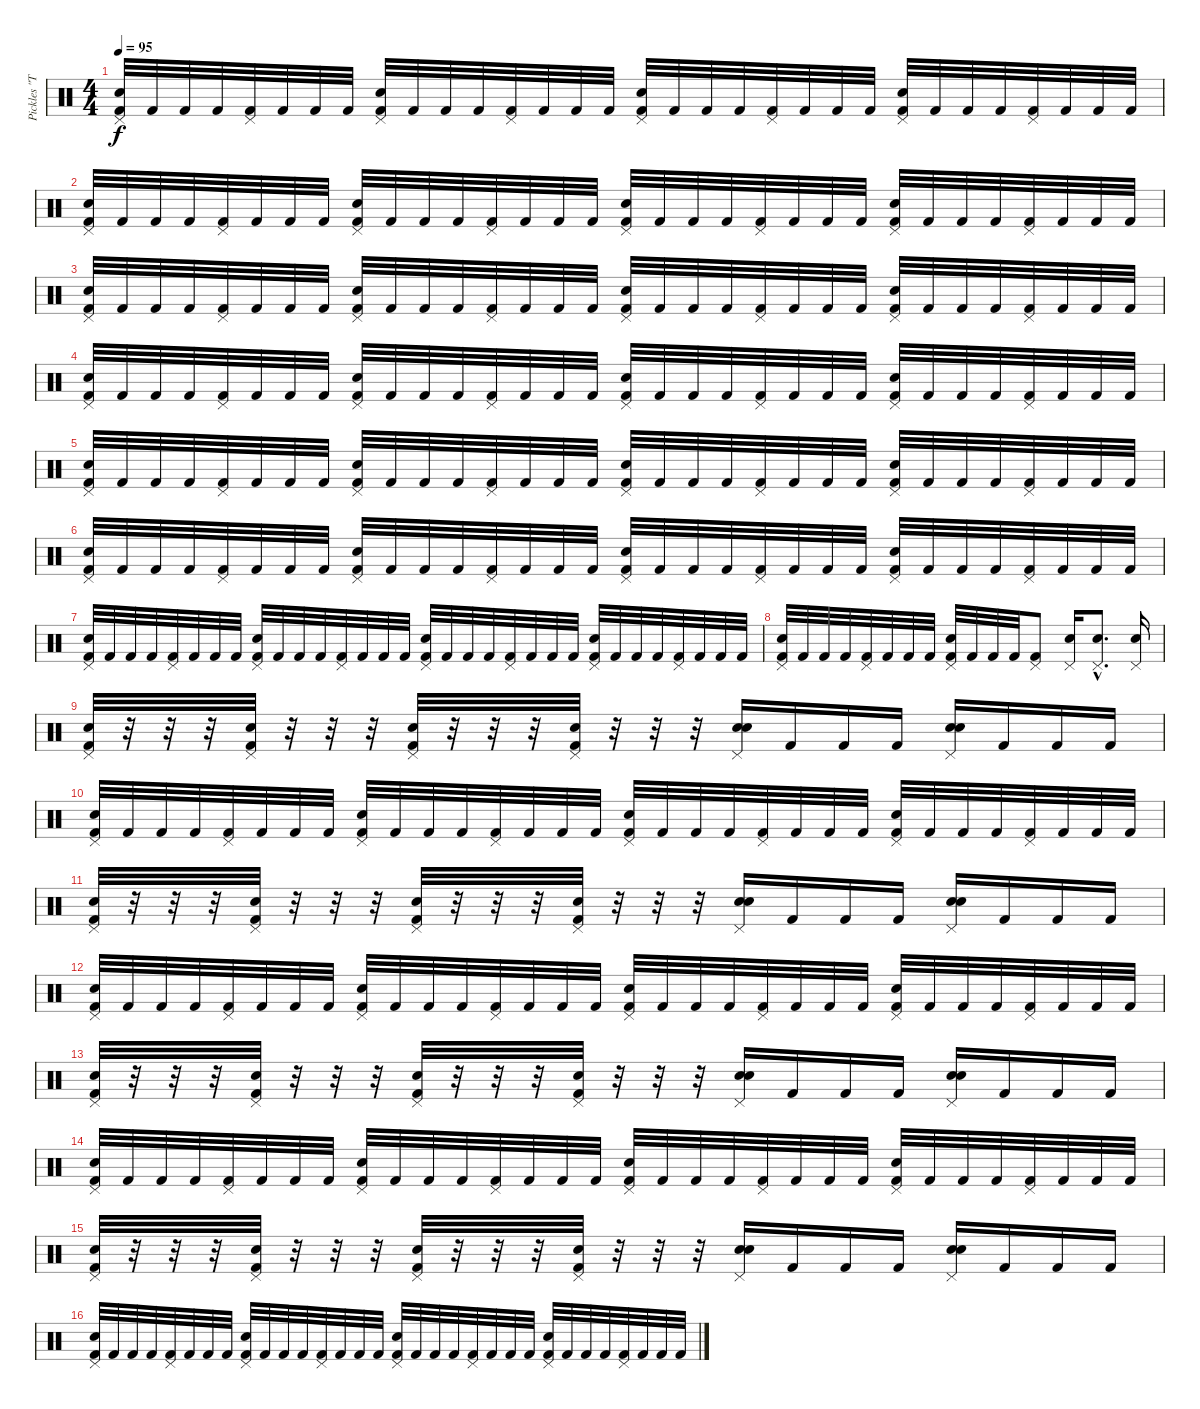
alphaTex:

\track ("Pickles \"The Drummer\"" "Pickles \"T") {instrument percussion}
\staff {score}
\articulation defaults
\ts (4 4)
\tempo 95
\clef neutral
\ks c
("Pedal Hi-Hat (hit)" "Electric Snare (hit)" "Kick (hit) 2").32{dy f} "Kick (hit) 2".32 "Kick (hit) 2".32 "Kick (hit) 2".32 ("Pedal Hi-Hat (hit)" "Kick (hit) 2").32 "Kick (hit) 2".32 "Kick (hit) 2".32 "Kick (hit) 2".32 ("Pedal Hi-Hat (hit)" "Electric Snare (hit)" "Kick (hit) 2").32 "Kick (hit) 2".32 "Kick (hit) 2".32 "Kick (hit) 2".32 ("Pedal Hi-Hat (hit)" "Kick (hit) 2").32 "Kick (hit) 2".32 "Kick (hit) 2".32 "Kick (hit) 2".32 ("Pedal Hi-Hat (hit)" "Electric Snare (hit)" "Kick (hit) 2").32 "Kick (hit) 2".32 "Kick (hit) 2".32 "Kick (hit) 2".32 ("Pedal Hi-Hat (hit)" "Kick (hit) 2").32 "Kick (hit) 2".32 "Kick (hit) 2".32 "Kick (hit) 2".32 ("Pedal Hi-Hat (hit)" "Electric Snare (hit)" "Kick (hit) 2").32 "Kick (hit) 2".32 "Kick (hit) 2".32 "Kick (hit) 2".32 ("Pedal Hi-Hat (hit)" "Kick (hit) 2").32 "Kick (hit) 2".32 "Kick (hit) 2".32 "Kick (hit) 2".32 |
("Pedal Hi-Hat (hit)" "Electric Snare (hit)" "Kick (hit) 2").32 "Kick (hit) 2".32 "Kick (hit) 2".32 "Kick (hit) 2".32 ("Pedal Hi-Hat (hit)" "Kick (hit) 2").32 "Kick (hit) 2".32 "Kick (hit) 2".32 "Kick (hit) 2".32 ("Pedal Hi-Hat (hit)" "Electric Snare (hit)" "Kick (hit) 2").32 "Kick (hit) 2".32 "Kick (hit) 2".32 "Kick (hit) 2".32 ("Pedal Hi-Hat (hit)" "Kick (hit) 2").32 "Kick (hit) 2".32 "Kick (hit) 2".32 "Kick (hit) 2".32 ("Pedal Hi-Hat (hit)" "Electric Snare (hit)" "Kick (hit) 2").32 "Kick (hit) 2".32 "Kick (hit) 2".32 "Kick (hit) 2".32 ("Pedal Hi-Hat (hit)" "Kick (hit) 2").32 "Kick (hit) 2".32 "Kick (hit) 2".32 "Kick (hit) 2".32 ("Pedal Hi-Hat (hit)" "Electric Snare (hit)" "Kick (hit) 2").32 "Kick (hit) 2".32 "Kick (hit) 2".32 "Kick (hit) 2".32 ("Pedal Hi-Hat (hit)" "Kick (hit) 2").32 "Kick (hit) 2".32 "Kick (hit) 2".32 "Kick (hit) 2".32 |
("Pedal Hi-Hat (hit)" "Electric Snare (hit)" "Kick (hit) 2").32 "Kick (hit) 2".32 "Kick (hit) 2".32 "Kick (hit) 2".32 ("Pedal Hi-Hat (hit)" "Kick (hit) 2").32 "Kick (hit) 2".32 "Kick (hit) 2".32 "Kick (hit) 2".32 ("Pedal Hi-Hat (hit)" "Electric Snare (hit)" "Kick (hit) 2").32 "Kick (hit) 2".32 "Kick (hit) 2".32 "Kick (hit) 2".32 ("Pedal Hi-Hat (hit)" "Kick (hit) 2").32 "Kick (hit) 2".32 "Kick (hit) 2".32 "Kick (hit) 2".32 ("Pedal Hi-Hat (hit)" "Electric Snare (hit)" "Kick (hit) 2").32 "Kick (hit) 2".32 "Kick (hit) 2".32 "Kick (hit) 2".32 ("Pedal Hi-Hat (hit)" "Kick (hit) 2").32 "Kick (hit) 2".32 "Kick (hit) 2".32 "Kick (hit) 2".32 ("Pedal Hi-Hat (hit)" "Electric Snare (hit)" "Kick (hit) 2").32 "Kick (hit) 2".32 "Kick (hit) 2".32 "Kick (hit) 2".32 ("Pedal Hi-Hat (hit)" "Kick (hit) 2").32 "Kick (hit) 2".32 "Kick (hit) 2".32 "Kick (hit) 2".32 |
("Pedal Hi-Hat (hit)" "Electric Snare (hit)" "Kick (hit) 2").32 "Kick (hit) 2".32 "Kick (hit) 2".32 "Kick (hit) 2".32 ("Pedal Hi-Hat (hit)" "Kick (hit) 2").32 "Kick (hit) 2".32 "Kick (hit) 2".32 "Kick (hit) 2".32 ("Pedal Hi-Hat (hit)" "Electric Snare (hit)" "Kick (hit) 2").32 "Kick (hit) 2".32 "Kick (hit) 2".32 "Kick (hit) 2".32 ("Pedal Hi-Hat (hit)" "Kick (hit) 2").32 "Kick (hit) 2".32 "Kick (hit) 2".32 "Kick (hit) 2".32 ("Pedal Hi-Hat (hit)" "Electric Snare (hit)" "Kick (hit) 2").32 "Kick (hit) 2".32 "Kick (hit) 2".32 "Kick (hit) 2".32 ("Pedal Hi-Hat (hit)" "Kick (hit) 2").32 "Kick (hit) 2".32 "Kick (hit) 2".32 "Kick (hit) 2".32 ("Pedal Hi-Hat (hit)" "Electric Snare (hit)" "Kick (hit) 2").32 "Kick (hit) 2".32 "Kick (hit) 2".32 "Kick (hit) 2".32 ("Pedal Hi-Hat (hit)" "Kick (hit) 2").32 "Kick (hit) 2".32 "Kick (hit) 2".32 "Kick (hit) 2".32 |
("Pedal Hi-Hat (hit)" "Electric Snare (hit)" "Kick (hit) 2").32 "Kick (hit) 2".32 "Kick (hit) 2".32 "Kick (hit) 2".32 ("Pedal Hi-Hat (hit)" "Kick (hit) 2").32 "Kick (hit) 2".32 "Kick (hit) 2".32 "Kick (hit) 2".32 ("Pedal Hi-Hat (hit)" "Electric Snare (hit)" "Kick (hit) 2").32 "Kick (hit) 2".32 "Kick (hit) 2".32 "Kick (hit) 2".32 ("Pedal Hi-Hat (hit)" "Kick (hit) 2").32 "Kick (hit) 2".32 "Kick (hit) 2".32 "Kick (hit) 2".32 ("Pedal Hi-Hat (hit)" "Electric Snare (hit)" "Kick (hit) 2").32 "Kick (hit) 2".32 "Kick (hit) 2".32 "Kick (hit) 2".32 ("Pedal Hi-Hat (hit)" "Kick (hit) 2").32 "Kick (hit) 2".32 "Kick (hit) 2".32 "Kick (hit) 2".32 ("Pedal Hi-Hat (hit)" "Electric Snare (hit)" "Kick (hit) 2").32 "Kick (hit) 2".32 "Kick (hit) 2".32 "Kick (hit) 2".32 ("Pedal Hi-Hat (hit)" "Kick (hit) 2").32 "Kick (hit) 2".32 "Kick (hit) 2".32 "Kick (hit) 2".32 |
("Pedal Hi-Hat (hit)" "Electric Snare (hit)" "Kick (hit) 2").32 "Kick (hit) 2".32 "Kick (hit) 2".32 "Kick (hit) 2".32 ("Pedal Hi-Hat (hit)" "Kick (hit) 2").32 "Kick (hit) 2".32 "Kick (hit) 2".32 "Kick (hit) 2".32 ("Pedal Hi-Hat (hit)" "Electric Snare (hit)" "Kick (hit) 2").32 "Kick (hit) 2".32 "Kick (hit) 2".32 "Kick (hit) 2".32 ("Pedal Hi-Hat (hit)" "Kick (hit) 2").32 "Kick (hit) 2".32 "Kick (hit) 2".32 "Kick (hit) 2".32 ("Pedal Hi-Hat (hit)" "Electric Snare (hit)" "Kick (hit) 2").32 "Kick (hit) 2".32 "Kick (hit) 2".32 "Kick (hit) 2".32 ("Pedal Hi-Hat (hit)" "Kick (hit) 2").32 "Kick (hit) 2".32 "Kick (hit) 2".32 "Kick (hit) 2".32 ("Pedal Hi-Hat (hit)" "Electric Snare (hit)" "Kick (hit) 2").32 "Kick (hit) 2".32 "Kick (hit) 2".32 "Kick (hit) 2".32 ("Pedal Hi-Hat (hit)" "Kick (hit) 2").32 "Kick (hit) 2".32 "Kick (hit) 2".32 "Kick (hit) 2".32 |
("Pedal Hi-Hat (hit)" "Electric Snare (hit)" "Kick (hit) 2").32 "Kick (hit) 2".32 "Kick (hit) 2".32 "Kick (hit) 2".32 ("Pedal Hi-Hat (hit)" "Kick (hit) 2").32 "Kick (hit) 2".32 "Kick (hit) 2".32 "Kick (hit) 2".32 ("Pedal Hi-Hat (hit)" "Electric Snare (hit)" "Kick (hit) 2").32 "Kick (hit) 2".32 "Kick (hit) 2".32 "Kick (hit) 2".32 ("Pedal Hi-Hat (hit)" "Kick (hit) 2").32 "Kick (hit) 2".32 "Kick (hit) 2".32 "Kick (hit) 2".32 ("Pedal Hi-Hat (hit)" "Electric Snare (hit)" "Kick (hit) 2").32 "Kick (hit) 2".32 "Kick (hit) 2".32 "Kick (hit) 2".32 ("Pedal Hi-Hat (hit)" "Kick (hit) 2").32 "Kick (hit) 2".32 "Kick (hit) 2".32 "Kick (hit) 2".32 ("Pedal Hi-Hat (hit)" "Electric Snare (hit)" "Kick (hit) 2").32 "Kick (hit) 2".32 "Kick (hit) 2".32 "Kick (hit) 2".32 ("Pedal Hi-Hat (hit)" "Kick (hit) 2").32 "Kick (hit) 2".32 "Kick (hit) 2".32 "Kick (hit) 2".32 |
("Pedal Hi-Hat (hit)" "Electric Snare (hit)" "Kick (hit) 2").32 "Kick (hit) 2".32 "Kick (hit) 2".32 "Kick (hit) 2".32 ("Pedal Hi-Hat (hit)" "Kick (hit) 2").32 "Kick (hit) 2".32 "Kick (hit) 2".32 "Kick (hit) 2".32 ("Pedal Hi-Hat (hit)" "Electric Snare (hit)" "Kick (hit) 2").32 "Kick (hit) 2".32 "Kick (hit) 2".32 "Kick (hit) 2".32 ("Pedal Hi-Hat (hit)" "Kick (hit) 2").8 ("Pedal Hi-Hat (hit)" "Electric Snare (hit)").16 ("Pedal Hi-Hat (hit)"{hac} "Electric Snare (hit)"{hac}).8{d} ("Pedal Hi-Hat (hit)" "Electric Snare (hit)").16 |
("Electric Snare (hit)" "Pedal Hi-Hat (hit)" "Kick (hit) 2").32 r.32 r.32 r.32 ("Electric Snare (hit)" "Pedal Hi-Hat (hit)" "Kick (hit) 2").32 r.32 r.32 r.32 ("Electric Snare (hit)" "Pedal Hi-Hat (hit)" "Kick (hit) 2").32 r.32 r.32 r.32 ("Electric Snare (hit)" "Pedal Hi-Hat (hit)" "Kick (hit) 2").32 r.32 r.32 r.32 ("Electric Snare (hit)" "Pedal Hi-Hat (hit)" "Snare (hit) 2").16 "Kick (hit) 2".16 "Kick (hit) 2".16 "Kick (hit) 2".16 ("Electric Snare (hit)" "Pedal Hi-Hat (hit)" "Snare (hit) 2").16 "Kick (hit) 2".16 "Kick (hit) 2".16 "Kick (hit) 2".16 |
("Pedal Hi-Hat (hit)" "Electric Snare (hit)" "Kick (hit) 2").32 "Kick (hit) 2".32 "Kick (hit) 2".32 "Kick (hit) 2".32 ("Pedal Hi-Hat (hit)" "Kick (hit) 2").32 "Kick (hit) 2".32 "Kick (hit) 2".32 "Kick (hit) 2".32 ("Pedal Hi-Hat (hit)" "Electric Snare (hit)" "Kick (hit) 2").32 "Kick (hit) 2".32 "Kick (hit) 2".32 "Kick (hit) 2".32 ("Pedal Hi-Hat (hit)" "Kick (hit) 2").32 "Kick (hit) 2".32 "Kick (hit) 2".32 "Kick (hit) 2".32 ("Pedal Hi-Hat (hit)" "Electric Snare (hit)" "Kick (hit) 2").32 "Kick (hit) 2".32 "Kick (hit) 2".32 "Kick (hit) 2".32 ("Pedal Hi-Hat (hit)" "Kick (hit) 2").32 "Kick (hit) 2".32 "Kick (hit) 2".32 "Kick (hit) 2".32 ("Pedal Hi-Hat (hit)" "Electric Snare (hit)" "Kick (hit) 2").32 "Kick (hit) 2".32 "Kick (hit) 2".32 "Kick (hit) 2".32 ("Pedal Hi-Hat (hit)" "Kick (hit) 2").32 "Kick (hit) 2".32 "Kick (hit) 2".32 "Kick (hit) 2".32 |
("Electric Snare (hit)" "Pedal Hi-Hat (hit)" "Kick (hit) 2").32 r.32 r.32 r.32 ("Electric Snare (hit)" "Pedal Hi-Hat (hit)" "Kick (hit) 2").32 r.32 r.32 r.32 ("Electric Snare (hit)" "Pedal Hi-Hat (hit)" "Kick (hit) 2").32 r.32 r.32 r.32 ("Electric Snare (hit)" "Pedal Hi-Hat (hit)" "Kick (hit) 2").32 r.32 r.32 r.32 ("Electric Snare (hit)" "Pedal Hi-Hat (hit)" "Snare (hit) 2").16 "Kick (hit) 2".16 "Kick (hit) 2".16 "Kick (hit) 2".16 ("Electric Snare (hit)" "Pedal Hi-Hat (hit)" "Snare (hit) 2").16 "Kick (hit) 2".16 "Kick (hit) 2".16 "Kick (hit) 2".16 |
("Pedal Hi-Hat (hit)" "Electric Snare (hit)" "Kick (hit) 2").32 "Kick (hit) 2".32 "Kick (hit) 2".32 "Kick (hit) 2".32 ("Pedal Hi-Hat (hit)" "Kick (hit) 2").32 "Kick (hit) 2".32 "Kick (hit) 2".32 "Kick (hit) 2".32 ("Pedal Hi-Hat (hit)" "Electric Snare (hit)" "Kick (hit) 2").32 "Kick (hit) 2".32 "Kick (hit) 2".32 "Kick (hit) 2".32 ("Pedal Hi-Hat (hit)" "Kick (hit) 2").32 "Kick (hit) 2".32 "Kick (hit) 2".32 "Kick (hit) 2".32 ("Pedal Hi-Hat (hit)" "Electric Snare (hit)" "Kick (hit) 2").32 "Kick (hit) 2".32 "Kick (hit) 2".32 "Kick (hit) 2".32 ("Pedal Hi-Hat (hit)" "Kick (hit) 2").32 "Kick (hit) 2".32 "Kick (hit) 2".32 "Kick (hit) 2".32 ("Pedal Hi-Hat (hit)" "Electric Snare (hit)" "Kick (hit) 2").32 "Kick (hit) 2".32 "Kick (hit) 2".32 "Kick (hit) 2".32 ("Pedal Hi-Hat (hit)" "Kick (hit) 2").32 "Kick (hit) 2".32 "Kick (hit) 2".32 "Kick (hit) 2".32 |
("Electric Snare (hit)" "Pedal Hi-Hat (hit)" "Kick (hit) 2").32 r.32 r.32 r.32 ("Electric Snare (hit)" "Pedal Hi-Hat (hit)" "Kick (hit) 2").32 r.32 r.32 r.32 ("Electric Snare (hit)" "Pedal Hi-Hat (hit)" "Kick (hit) 2").32 r.32 r.32 r.32 ("Electric Snare (hit)" "Pedal Hi-Hat (hit)" "Kick (hit) 2").32 r.32 r.32 r.32 ("Electric Snare (hit)" "Pedal Hi-Hat (hit)" "Snare (hit) 2").16 "Kick (hit) 2".16 "Kick (hit) 2".16 "Kick (hit) 2".16 ("Electric Snare (hit)" "Pedal Hi-Hat (hit)" "Snare (hit) 2").16 "Kick (hit) 2".16 "Kick (hit) 2".16 "Kick (hit) 2".16 |
("Pedal Hi-Hat (hit)" "Electric Snare (hit)" "Kick (hit) 2").32 "Kick (hit) 2".32 "Kick (hit) 2".32 "Kick (hit) 2".32 ("Pedal Hi-Hat (hit)" "Kick (hit) 2").32 "Kick (hit) 2".32 "Kick (hit) 2".32 "Kick (hit) 2".32 ("Pedal Hi-Hat (hit)" "Electric Snare (hit)" "Kick (hit) 2").32 "Kick (hit) 2".32 "Kick (hit) 2".32 "Kick (hit) 2".32 ("Pedal Hi-Hat (hit)" "Kick (hit) 2").32 "Kick (hit) 2".32 "Kick (hit) 2".32 "Kick (hit) 2".32 ("Pedal Hi-Hat (hit)" "Electric Snare (hit)" "Kick (hit) 2").32 "Kick (hit) 2".32 "Kick (hit) 2".32 "Kick (hit) 2".32 ("Pedal Hi-Hat (hit)" "Kick (hit) 2").32 "Kick (hit) 2".32 "Kick (hit) 2".32 "Kick (hit) 2".32 ("Pedal Hi-Hat (hit)" "Electric Snare (hit)" "Kick (hit) 2").32 "Kick (hit) 2".32 "Kick (hit) 2".32 "Kick (hit) 2".32 ("Pedal Hi-Hat (hit)" "Kick (hit) 2").32 "Kick (hit) 2".32 "Kick (hit) 2".32 "Kick (hit) 2".32 |
("Electric Snare (hit)" "Pedal Hi-Hat (hit)" "Kick (hit) 2").32 r.32 r.32 r.32 ("Electric Snare (hit)" "Pedal Hi-Hat (hit)" "Kick (hit) 2").32 r.32 r.32 r.32 ("Electric Snare (hit)" "Pedal Hi-Hat (hit)" "Kick (hit) 2").32 r.32 r.32 r.32 ("Electric Snare (hit)" "Pedal Hi-Hat (hit)" "Kick (hit) 2").32 r.32 r.32 r.32 ("Electric Snare (hit)" "Pedal Hi-Hat (hit)" "Snare (hit) 2").16 "Kick (hit) 2".16 "Kick (hit) 2".16 "Kick (hit) 2".16 ("Electric Snare (hit)" "Pedal Hi-Hat (hit)" "Snare (hit) 2").16 "Kick (hit) 2".16 "Kick (hit) 2".16 "Kick (hit) 2".16 |
("Pedal Hi-Hat (hit)" "Electric Snare (hit)" "Kick (hit) 2").32 "Kick (hit) 2".32 "Kick (hit) 2".32 "Kick (hit) 2".32 ("Pedal Hi-Hat (hit)" "Kick (hit) 2").32 "Kick (hit) 2".32 "Kick (hit) 2".32 "Kick (hit) 2".32 ("Pedal Hi-Hat (hit)" "Electric Snare (hit)" "Kick (hit) 2").32 "Kick (hit) 2".32 "Kick (hit) 2".32 "Kick (hit) 2".32 ("Pedal Hi-Hat (hit)" "Kick (hit) 2").32 "Kick (hit) 2".32 "Kick (hit) 2".32 "Kick (hit) 2".32 ("Pedal Hi-Hat (hit)" "Electric Snare (hit)" "Kick (hit) 2").32 "Kick (hit) 2".32 "Kick (hit) 2".32 "Kick (hit) 2".32 ("Pedal Hi-Hat (hit)" "Kick (hit) 2").32 "Kick (hit) 2".32 "Kick (hit) 2".32 "Kick (hit) 2".32 ("Pedal Hi-Hat (hit)" "Electric Snare (hit)" "Kick (hit) 2").32 "Kick (hit) 2".32 "Kick (hit) 2".32 "Kick (hit) 2".32 ("Pedal Hi-Hat (hit)" "Kick (hit) 2").32 "Kick (hit) 2".32 "Kick (hit) 2".32 "Kick (hit) 2".32
